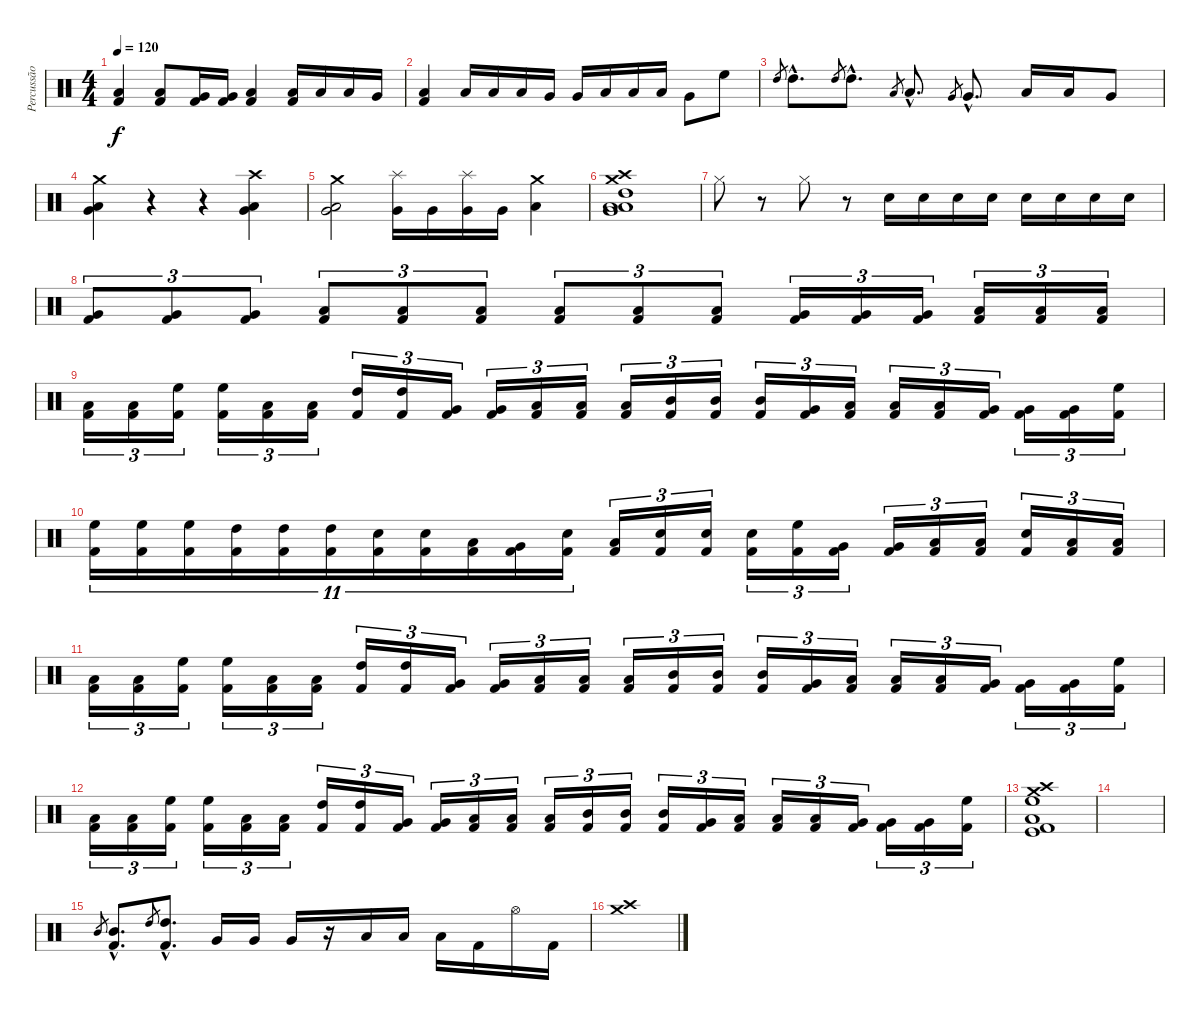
\track ("Percussão" "Percussão") {instrument percussion}
\staff {score}
\articulation defaults
\ts (4 4)
\tempo 120
\clef neutral
\ks c
("Low Floor Tom (hit)" "Kick (hit) 2").4{dy f} ("Low Floor Tom (hit)" "Kick (hit) 2").8 ("Very Low Tom (hit)" "Kick (hit) 2").16 ("Very Low Tom (hit)" "Kick (hit) 2").16 ("Low Tom (hit)" "Kick (hit) 2").4 ("Low Tom (hit)" "Kick (hit) 2").16 "Low Tom (hit)".16 "Low Tom (hit)".16 "Very Low Tom (hit)".16 |
("Low Floor Tom (hit)" "Kick (hit) 2").4 "Low Tom (hit)".16 "Low Tom (hit)".16 "Low Tom (hit)".16 "Very Low Tom (hit)".16 "Very Low Tom (hit)".16 "Low Floor Tom (hit)".16 "Low Floor Tom (hit)".16 "Low Floor Tom (hit)".16 "Very Low Tom (hit)".8 "High Floor Tom (hit)".8 |
"High Tom (hit)".8{gr} "High Tom (hit)"{hac}.8{d} "High Tom (hit)".8{gr} "High Tom (hit)"{hac}.8{d} "Low Tom (hit)".8{gr} "Low Tom (hit)"{hac}.8{d} "Very Low Tom (hit)".8{gr} "Very Low Tom (hit)"{hac}.8{d} "Low Floor Tom (hit)".16 "Low Floor Tom (hit)".16 "Very Low Tom (hit)".8 |
("Crash medium (hit)" "Low Floor Tom (hit)" "Very Low Tom (hit)").4 r.4 r.4 ("Crash high (hit)" "Low Floor Tom (hit)" "Very Low Tom (hit)").4 |
("Crash medium (hit)" "Low Tom (hit)" "Very Low Tom (hit)").2 ("Splash (hit)" "Very Low Tom (hit)").16 "Very Low Tom (hit)".16 ("Splash (hit)" "Very Low Tom (hit)").16 "Very Low Tom (hit)".16 ("Crash medium (hit)" "Low Floor Tom (hit)").4 |
("Crash medium (hit)" "Crash high (hit)" "Low Tom (hit)" "Very Low Tom (hit)" "Low Floor Tom (hit)" "High Tom (hit)").1 |
"Hi-Hat (closed)".8 r.8 "Hi-Hat (closed)".8 r.8 "Snare (hit) 2".16 "Snare (hit) 2".16 "Snare (hit) 2".16 "Snare (hit) 2".16 "Snare (hit) 2".16 "Snare (hit) 2".16 "Snare (hit) 2".16 "Snare (hit) 2".16 |
("Very Low Tom (hit)" "Kick (hit) 2").8{tu (3 2)} ("Very Low Tom (hit)" "Kick (hit) 2").8{tu (3 2)} ("Very Low Tom (hit)" "Kick (hit) 2").8{tu (3 2)} ("Low Floor Tom (hit)" "Kick (hit) 2").8{tu (3 2)} ("Low Floor Tom (hit)" "Kick (hit) 2").8{tu (3 2)} ("Low Floor Tom (hit)" "Kick (hit) 2").8{tu (3 2)} ("Low Tom (hit)" "Kick (hit) 2").8{tu (3 2)} ("Low Tom (hit)" "Kick (hit) 2").8{tu (3 2)} ("Low Tom (hit)" "Kick (hit) 2").8{tu (3 2)} ("Very Low Tom (hit)" "Kick (hit) 2").16{tu (3 2)} ("Very Low Tom (hit)" "Kick (hit) 2").16{tu (3 2)} ("Very Low Tom (hit)" "Kick (hit) 2").16{tu (3 2)} ("Low Floor Tom (hit)" "Kick (hit) 2").16{tu (3 2)} ("Low Floor Tom (hit)" "Kick (hit) 2").16{tu (3 2)} ("Low Floor Tom (hit)" "Kick (hit) 2").16{tu (3 2)} |
("Low Tom (hit)" "Kick (hit) 2").16{tu (3 2)} ("Low Tom (hit)" "Kick (hit) 2").16{tu (3 2)} ("High Floor Tom (hit)" "Kick (hit) 2").16{tu (3 2)} ("High Floor Tom (hit)" "Kick (hit) 2").16{tu (3 2)} ("Low Floor Tom (hit)" "Kick (hit) 2").16{tu (3 2)} ("Low Floor Tom (hit)" "Kick (hit) 2").16{tu (3 2)} ("High Tom (hit)" "Kick (hit) 2").16{tu (3 2)} ("High Tom (hit)" "Kick (hit) 2").16{tu (3 2)} ("Very Low Tom (hit)" "Kick (hit) 2").16{tu (3 2)} ("Very Low Tom (hit)" "Kick (hit) 2").16{tu (3 2)} ("Low Tom (hit)" "Kick (hit) 2").16{tu (3 2)} ("Low Tom (hit)" "Kick (hit) 2").16{tu (3 2)} ("Low Tom (hit)" "Kick (hit) 2").16{tu (3 2)} ("Mid Tom (hit)" "Kick (hit) 2").16{tu (3 2)} ("Mid Tom (hit)" "Kick (hit) 2").16{tu (3 2)} ("Mid Tom (hit)" "Kick (hit) 2").16{tu (3 2)} ("Very Low Tom (hit)" "Kick (hit) 2").16{tu (3 2)} ("Low Floor Tom (hit)" "Kick (hit) 2").16{tu (3 2)} ("Low Floor Tom (hit)" "Kick (hit) 2").16{tu (3 2)} ("Low Floor Tom (hit)" "Kick (hit) 2").16{tu (3 2)} ("Very Low Tom (hit)" "Kick (hit) 2").16{tu (3 2)} ("Very Low Tom (hit)" "Kick (hit) 2").16{tu (3 2)} ("Very Low Tom (hit)" "Kick (hit) 2").16{tu (3 2)} ("High Floor Tom (hit)" "Kick (hit) 2").16{tu (3 2)} |
("High Floor Tom (hit)" "Kick (hit) 2").16{tu (11 8)} ("High Floor Tom (hit)" "Kick (hit) 2").16{tu (11 8)} ("High Floor Tom (hit)" "Kick (hit) 2").16{tu (11 8)} ("High Tom (hit)" "Kick (hit) 2").16{tu (11 8)} ("High Tom (hit)" "Kick (hit) 2").16{tu (11 8)} ("High Tom (hit)" "Kick (hit) 2").16{tu (11 8)} ("Snare (hit) 2" "Kick (hit) 2").16{tu (11 8)} ("Snare (hit) 2" "Kick (hit) 2").16{tu (11 8)} ("Low Tom (hit)" "Kick (hit) 2").16{tu (11 8)} ("Very Low Tom (hit)" "Kick (hit) 2").16{tu (11 8)} ("Snare (hit) 2" "Kick (hit) 2").16{tu (11 8)} ("Low Floor Tom (hit)" "Kick (hit) 2").16{tu (3 2)} ("Snare (hit) 2" "Kick (hit) 2").16{tu (3 2)} ("Snare (hit) 2" "Kick (hit) 2").16{tu (3 2)} ("Snare (hit) 2" "Kick (hit) 2").16{tu (3 2)} ("High Floor Tom (hit)" "Kick (hit) 2").16{tu (3 2)} ("Very Low Tom (hit)" "Kick (hit) 2").16{tu (3 2)} ("Very Low Tom (hit)" "Kick (hit) 2").16{tu (3 2)} ("Low Floor Tom (hit)" "Kick (hit) 2").16{tu (3 2)} ("Low Floor Tom (hit)" "Kick (hit) 2").16{tu (3 2)} ("Snare (hit) 2" "Kick (hit) 2").16{tu (3 2)} ("Low Floor Tom (hit)" "Kick (hit) 2").16{tu (3 2)} ("Low Floor Tom (hit)" "Kick (hit) 2").16{tu (3 2)} |
("Low Tom (hit)" "Kick (hit) 2").16{tu (3 2)} ("Low Tom (hit)" "Kick (hit) 2").16{tu (3 2)} ("High Floor Tom (hit)" "Kick (hit) 2").16{tu (3 2)} ("High Floor Tom (hit)" "Kick (hit) 2").16{tu (3 2)} ("Low Floor Tom (hit)" "Kick (hit) 2").16{tu (3 2)} ("Low Floor Tom (hit)" "Kick (hit) 2").16{tu (3 2)} ("High Tom (hit)" "Kick (hit) 2").16{tu (3 2)} ("High Tom (hit)" "Kick (hit) 2").16{tu (3 2)} ("Very Low Tom (hit)" "Kick (hit) 2").16{tu (3 2)} ("Very Low Tom (hit)" "Kick (hit) 2").16{tu (3 2)} ("Low Tom (hit)" "Kick (hit) 2").16{tu (3 2)} ("Low Tom (hit)" "Kick (hit) 2").16{tu (3 2)} ("Low Tom (hit)" "Kick (hit) 2").16{tu (3 2)} ("Mid Tom (hit)" "Kick (hit) 2").16{tu (3 2)} ("Mid Tom (hit)" "Kick (hit) 2").16{tu (3 2)} ("Mid Tom (hit)" "Kick (hit) 2").16{tu (3 2)} ("Very Low Tom (hit)" "Kick (hit) 2").16{tu (3 2)} ("Low Floor Tom (hit)" "Kick (hit) 2").16{tu (3 2)} ("Low Floor Tom (hit)" "Kick (hit) 2").16{tu (3 2)} ("Low Floor Tom (hit)" "Kick (hit) 2").16{tu (3 2)} ("Very Low Tom (hit)" "Kick (hit) 2").16{tu (3 2)} ("Very Low Tom (hit)" "Kick (hit) 2").16{tu (3 2)} ("Very Low Tom (hit)" "Kick (hit) 2").16{tu (3 2)} ("High Floor Tom (hit)" "Kick (hit) 2").16{tu (3 2)} |
("Low Tom (hit)" "Kick (hit) 2").16{tu (3 2)} ("Low Tom (hit)" "Kick (hit) 2").16{tu (3 2)} ("High Floor Tom (hit)" "Kick (hit) 2").16{tu (3 2)} ("High Floor Tom (hit)" "Kick (hit) 2").16{tu (3 2)} ("Low Floor Tom (hit)" "Kick (hit) 2").16{tu (3 2)} ("Low Floor Tom (hit)" "Kick (hit) 2").16{tu (3 2)} ("High Tom (hit)" "Kick (hit) 2").16{tu (3 2)} ("High Tom (hit)" "Kick (hit) 2").16{tu (3 2)} ("Very Low Tom (hit)" "Kick (hit) 2").16{tu (3 2)} ("Very Low Tom (hit)" "Kick (hit) 2").16{tu (3 2)} ("Low Tom (hit)" "Kick (hit) 2").16{tu (3 2)} ("Low Tom (hit)" "Kick (hit) 2").16{tu (3 2)} ("Low Tom (hit)" "Kick (hit) 2").16{tu (3 2)} ("Mid Tom (hit)" "Kick (hit) 2").16{tu (3 2)} ("Mid Tom (hit)" "Kick (hit) 2").16{tu (3 2)} ("Mid Tom (hit)" "Kick (hit) 2").16{tu (3 2)} ("Very Low Tom (hit)" "Kick (hit) 2").16{tu (3 2)} ("Low Floor Tom (hit)" "Kick (hit) 2").16{tu (3 2)} ("Low Floor Tom (hit)" "Kick (hit) 2").16{tu (3 2)} ("Low Floor Tom (hit)" "Kick (hit) 2").16{tu (3 2)} ("Very Low Tom (hit)" "Kick (hit) 2").16{tu (3 2)} ("Very Low Tom (hit)" "Kick (hit) 2").16{tu (3 2)} ("Very Low Tom (hit)" "Kick (hit) 2").16{tu (3 2)} ("High Floor Tom (hit)" "Kick (hit) 2").16{tu (3 2)} |
("Crash medium (hit)" "Crash high (hit)" "High Floor Tom (hit)" "Low Floor Tom (hit)" "Kick (hit)" "Kick (hit) 2").1 |
|
"Mid Tom (hit)".8{gr} ("Mid Tom (hit)"{hac} "Kick (hit) 2"{hac}).8{d} "High Tom (hit)".8{gr} ("High Tom (hit)"{hac} "Kick (hit) 2"{hac}).8{d} "Very Low Tom (hit)".16 "Very Low Tom (hit)".16 "Very Low Tom (hit)".16 r.16 "Low Floor Tom (hit)".16 "Low Floor Tom (hit)".16 "Low Floor Tom (hit)".16 "Kick (hit) 2".16 "Hi-Hat (open)".16 "Kick (hit) 2".16 |
("Crash high (hit)" "Crash medium (hit)").1
